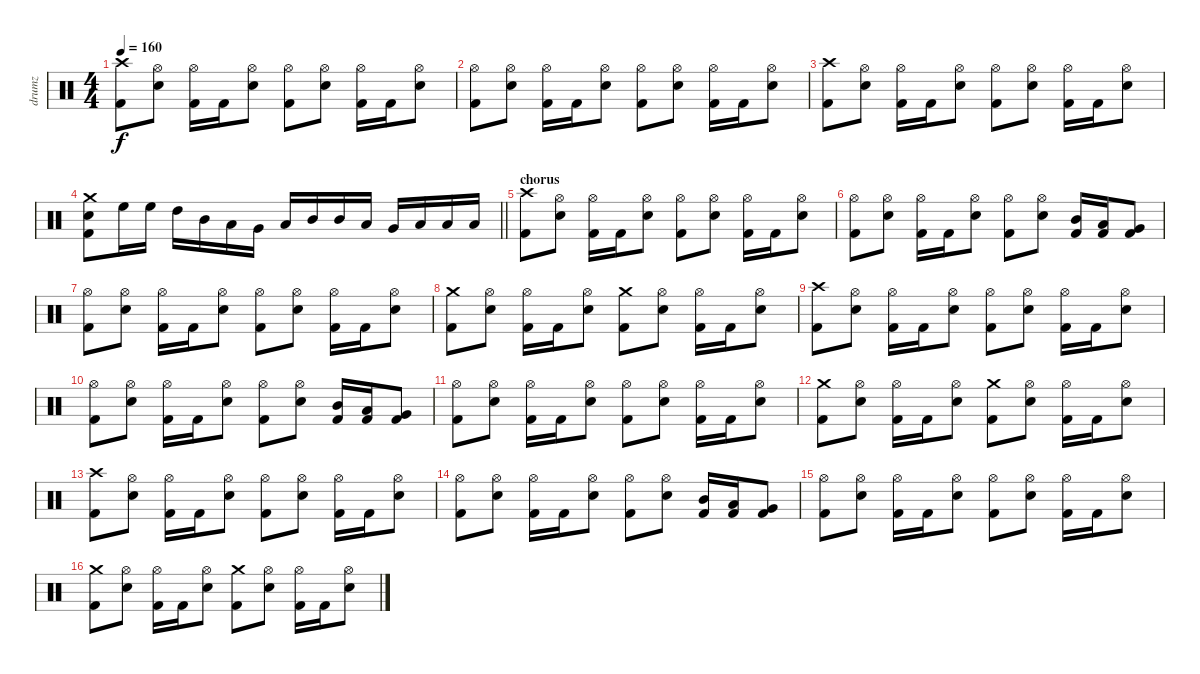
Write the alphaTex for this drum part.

\track ("drumz" "drumz") {instrument percussion}
\staff {score}
\articulation defaults
\ts (4 4)
\tempo 160
\clef neutral
\ks c
("Crash high (hit)" "Kick (hit) 2").8{dy f} ("Hi-Hat (open)" "Electric Snare (hit)").8 ("Hi-Hat (open)" "Kick (hit) 2").16 "Kick (hit) 2".16 ("Hi-Hat (open)" "Electric Snare (hit)").8 ("Hi-Hat (open)" "Kick (hit) 2").8 ("Hi-Hat (open)" "Electric Snare (hit)").8 ("Hi-Hat (open)" "Kick (hit) 2").16 "Kick (hit) 2".16 ("Hi-Hat (open)" "Electric Snare (hit)").8 |
("Hi-Hat (open)" "Kick (hit) 2").8 ("Hi-Hat (open)" "Electric Snare (hit)").8 ("Hi-Hat (open)" "Kick (hit) 2").16 "Kick (hit) 2".16 ("Hi-Hat (open)" "Electric Snare (hit)").8 ("Hi-Hat (open)" "Kick (hit) 2").8 ("Hi-Hat (open)" "Electric Snare (hit)").8 ("Hi-Hat (open)" "Kick (hit) 2").16 "Kick (hit) 2".16 ("Hi-Hat (open)" "Electric Snare (hit)").8 |
("Crash high (hit)" "Kick (hit) 2").8 ("Hi-Hat (open)" "Electric Snare (hit)").8 ("Hi-Hat (open)" "Kick (hit) 2").16 "Kick (hit) 2".16 ("Hi-Hat (open)" "Electric Snare (hit)").8 ("Hi-Hat (open)" "Kick (hit) 2").8 ("Hi-Hat (open)" "Electric Snare (hit)").8 ("Hi-Hat (open)" "Kick (hit) 2").16 "Kick (hit) 2".16 ("Hi-Hat (open)" "Electric Snare (hit)").8 |
\barLineRight lightlight
("Crash medium (hit)" "Electric Snare (hit)" "Kick (hit) 2").8 "High Floor Tom (hit)".16 "High Floor Tom (hit)".16 "High Tom (hit)".16 "Mid Tom (hit)".16 "Low Tom (hit)".16 "Very Low Tom (hit)".16 "Low Floor Tom (hit)".16 "Mid Tom (hit)".16 "Mid Tom (hit)".16 "Low Tom (hit)".16 "Very Low Tom (hit)".16 "Low Floor Tom (hit)".16 "Low Floor Tom (hit)".16 "Low Floor Tom (hit)".16 |
\section ("" "chorus")
("Crash high (hit)" "Kick (hit) 2").8 ("Hi-Hat (open)" "Electric Snare (hit)").8 ("Hi-Hat (open)" "Kick (hit) 2").16 "Kick (hit) 2".16 ("Hi-Hat (open)" "Electric Snare (hit)").8 ("Hi-Hat (open)" "Kick (hit) 2").8 ("Hi-Hat (open)" "Electric Snare (hit)").8 ("Hi-Hat (open)" "Kick (hit) 2").16 "Kick (hit) 2".16 ("Hi-Hat (open)" "Electric Snare (hit)").8 |
("Hi-Hat (open)" "Kick (hit) 2").8 ("Hi-Hat (open)" "Electric Snare (hit)").8 ("Hi-Hat (open)" "Kick (hit) 2").16 "Kick (hit) 2".16 ("Hi-Hat (open)" "Electric Snare (hit)").8 ("Hi-Hat (open)" "Kick (hit) 2").8 ("Hi-Hat (open)" "Electric Snare (hit)").8 ("Mid Tom (hit)" "Kick (hit) 2").16 ("Low Tom (hit)" "Kick (hit) 2").16 ("Very Low Tom (hit)" "Kick (hit) 2").8 |
("Hi-Hat (open)" "Kick (hit) 2").8 ("Hi-Hat (open)" "Electric Snare (hit)").8 ("Hi-Hat (open)" "Kick (hit) 2").16 "Kick (hit) 2".16 ("Hi-Hat (open)" "Electric Snare (hit)").8 ("Hi-Hat (open)" "Kick (hit) 2").8 ("Hi-Hat (open)" "Electric Snare (hit)").8 ("Hi-Hat (open)" "Kick (hit) 2").16 "Kick (hit) 2".16 ("Hi-Hat (open)" "Electric Snare (hit)").8 |
("Crash medium (hit)" "Kick (hit) 2").8 ("Hi-Hat (open)" "Electric Snare (hit)").8 ("Hi-Hat (open)" "Kick (hit) 2").16 "Kick (hit) 2".16 ("Hi-Hat (open)" "Electric Snare (hit)").8 ("Crash medium (hit)" "Kick (hit) 2").8 ("Hi-Hat (open)" "Electric Snare (hit)").8 ("Hi-Hat (open)" "Kick (hit) 2").16 "Kick (hit) 2".16 ("Hi-Hat (open)" "Electric Snare (hit)").8 |
("Crash high (hit)" "Kick (hit) 2").8 ("Hi-Hat (open)" "Electric Snare (hit)").8 ("Hi-Hat (open)" "Kick (hit) 2").16 "Kick (hit) 2".16 ("Hi-Hat (open)" "Electric Snare (hit)").8 ("Hi-Hat (open)" "Kick (hit) 2").8 ("Hi-Hat (open)" "Electric Snare (hit)").8 ("Hi-Hat (open)" "Kick (hit) 2").16 "Kick (hit) 2".16 ("Hi-Hat (open)" "Electric Snare (hit)").8 |
("Hi-Hat (open)" "Kick (hit) 2").8 ("Hi-Hat (open)" "Electric Snare (hit)").8 ("Hi-Hat (open)" "Kick (hit) 2").16 "Kick (hit) 2".16 ("Hi-Hat (open)" "Electric Snare (hit)").8 ("Hi-Hat (open)" "Kick (hit) 2").8 ("Hi-Hat (open)" "Electric Snare (hit)").8 ("Mid Tom (hit)" "Kick (hit) 2").16 ("Low Tom (hit)" "Kick (hit) 2").16 ("Very Low Tom (hit)" "Kick (hit) 2").8 |
("Hi-Hat (open)" "Kick (hit) 2").8 ("Hi-Hat (open)" "Electric Snare (hit)").8 ("Hi-Hat (open)" "Kick (hit) 2").16 "Kick (hit) 2".16 ("Hi-Hat (open)" "Electric Snare (hit)").8 ("Hi-Hat (open)" "Kick (hit) 2").8 ("Hi-Hat (open)" "Electric Snare (hit)").8 ("Hi-Hat (open)" "Kick (hit) 2").16 "Kick (hit) 2".16 ("Hi-Hat (open)" "Electric Snare (hit)").8 |
("Crash medium (hit)" "Kick (hit) 2").8 ("Hi-Hat (open)" "Electric Snare (hit)").8 ("Hi-Hat (open)" "Kick (hit) 2").16 "Kick (hit) 2".16 ("Hi-Hat (open)" "Electric Snare (hit)").8 ("Crash medium (hit)" "Kick (hit) 2").8 ("Hi-Hat (open)" "Electric Snare (hit)").8 ("Hi-Hat (open)" "Kick (hit) 2").16 "Kick (hit) 2".16 ("Hi-Hat (open)" "Electric Snare (hit)").8 |
("Crash high (hit)" "Kick (hit) 2").8 ("Hi-Hat (open)" "Electric Snare (hit)").8 ("Hi-Hat (open)" "Kick (hit) 2").16 "Kick (hit) 2".16 ("Hi-Hat (open)" "Electric Snare (hit)").8 ("Hi-Hat (open)" "Kick (hit) 2").8 ("Hi-Hat (open)" "Electric Snare (hit)").8 ("Hi-Hat (open)" "Kick (hit) 2").16 "Kick (hit) 2".16 ("Hi-Hat (open)" "Electric Snare (hit)").8 |
("Hi-Hat (open)" "Kick (hit) 2").8 ("Hi-Hat (open)" "Electric Snare (hit)").8 ("Hi-Hat (open)" "Kick (hit) 2").16 "Kick (hit) 2".16 ("Hi-Hat (open)" "Electric Snare (hit)").8 ("Hi-Hat (open)" "Kick (hit) 2").8 ("Hi-Hat (open)" "Electric Snare (hit)").8 ("Mid Tom (hit)" "Kick (hit) 2").16 ("Low Tom (hit)" "Kick (hit) 2").16 ("Very Low Tom (hit)" "Kick (hit) 2").8 |
("Hi-Hat (open)" "Kick (hit) 2").8 ("Hi-Hat (open)" "Electric Snare (hit)").8 ("Hi-Hat (open)" "Kick (hit) 2").16 "Kick (hit) 2".16 ("Hi-Hat (open)" "Electric Snare (hit)").8 ("Hi-Hat (open)" "Kick (hit) 2").8 ("Hi-Hat (open)" "Electric Snare (hit)").8 ("Hi-Hat (open)" "Kick (hit) 2").16 "Kick (hit) 2".16 ("Hi-Hat (open)" "Electric Snare (hit)").8 |
("Crash medium (hit)" "Kick (hit) 2").8 ("Hi-Hat (open)" "Electric Snare (hit)").8 ("Hi-Hat (open)" "Kick (hit) 2").16 "Kick (hit) 2".16 ("Hi-Hat (open)" "Electric Snare (hit)").8 ("Crash medium (hit)" "Kick (hit) 2").8 ("Hi-Hat (open)" "Electric Snare (hit)").8 ("Hi-Hat (open)" "Kick (hit) 2").16 "Kick (hit) 2".16 ("Hi-Hat (open)" "Electric Snare (hit)").8
